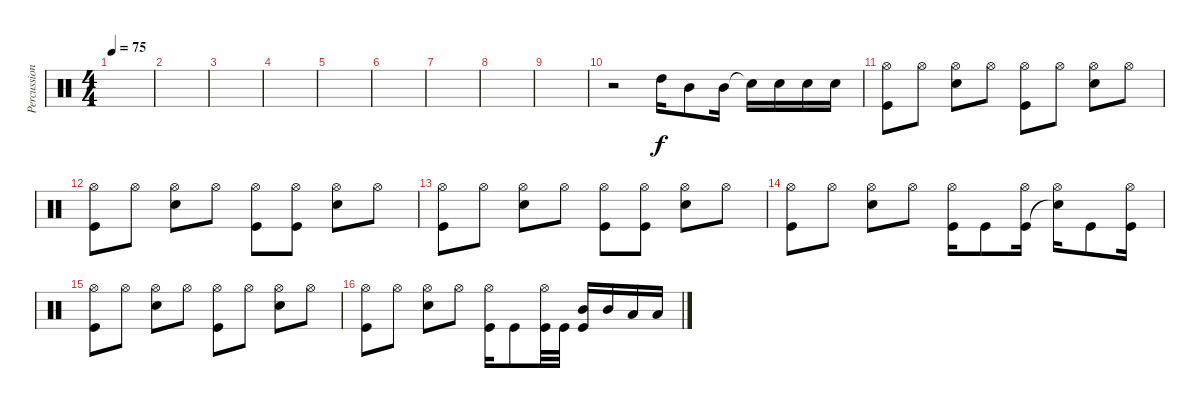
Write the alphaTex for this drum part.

\track ("Percussion" "Percussion") {instrument percussion}
\staff {score}
\articulation defaults
\ts (4 4)
\tempo 75
\clef neutral
\ks c
|
|
|
|
|
|
|
|
|
r.2 "High Tom (hit)".16 "Mid Tom (hit)".8 "Mid Tom (hit)".16 "Snare (hit)"{t}.16 "Snare (hit) 2".16 "Snare (hit) 2".16 "Snare (hit) 2".16 |
("Hi-Hat (open)" "Kick (hit)").8 "Hi-Hat (open)".8 ("Hi-Hat (open)" "Snare (hit) 2").8 "Hi-Hat (open)".8 ("Hi-Hat (open)" "Kick (hit)").8 "Hi-Hat (open)".8 ("Hi-Hat (open)" "Snare (hit) 2").8 "Hi-Hat (open)".8 |
("Hi-Hat (open)" "Kick (hit)").8 "Hi-Hat (open)".8 ("Hi-Hat (open)" "Snare (hit) 2").8 "Hi-Hat (open)".8 ("Hi-Hat (open)" "Kick (hit)").8 ("Hi-Hat (open)" "Kick (hit)").8 ("Hi-Hat (open)" "Snare (hit) 2").8 "Hi-Hat (open)".8 |
("Hi-Hat (open)" "Kick (hit)").8 "Hi-Hat (open)".8 ("Hi-Hat (open)" "Snare (hit) 2").8 "Hi-Hat (open)".8 ("Hi-Hat (open)" "Kick (hit)").8 ("Hi-Hat (open)" "Kick (hit)").8 ("Hi-Hat (open)" "Snare (hit) 2").8 "Hi-Hat (open)".8 |
("Hi-Hat (open)" "Kick (hit)").8 "Hi-Hat (open)".8 ("Hi-Hat (open)" "Snare (hit) 2").8 "Hi-Hat (open)".8 ("Hi-Hat (open)" "Kick (hit)").16 "Kick (hit)".8 ("Hi-Hat (open)" "Kick (hit)").16 ("Hi-Hat (open)" "Snare (hit)"{t}).16 "Kick (hit)".8 ("Hi-Hat (open)" "Kick (hit)").16 |
("Hi-Hat (open)" "Kick (hit)").8 "Hi-Hat (open)".8 ("Hi-Hat (open)" "Snare (hit) 2").8 "Hi-Hat (open)".8 ("Hi-Hat (open)" "Kick (hit)").8 "Hi-Hat (open)".8 ("Hi-Hat (open)" "Snare (hit) 2").8 "Hi-Hat (open)".8 |
("Hi-Hat (open)" "Kick (hit)").8 "Hi-Hat (open)".8 ("Hi-Hat (open)" "Snare (hit) 2").8 "Hi-Hat (open)".8 ("Hi-Hat (open)" "Kick (hit)").16 "Kick (hit)".8 ("Hi-Hat (open)" "Kick (hit)").32 "Kick (hit)".32 ("Mid Tom (hit)" "Kick (hit)").16 "Mid Tom (hit)".16 "Low Tom (hit)".16 "Low Tom (hit)".16
